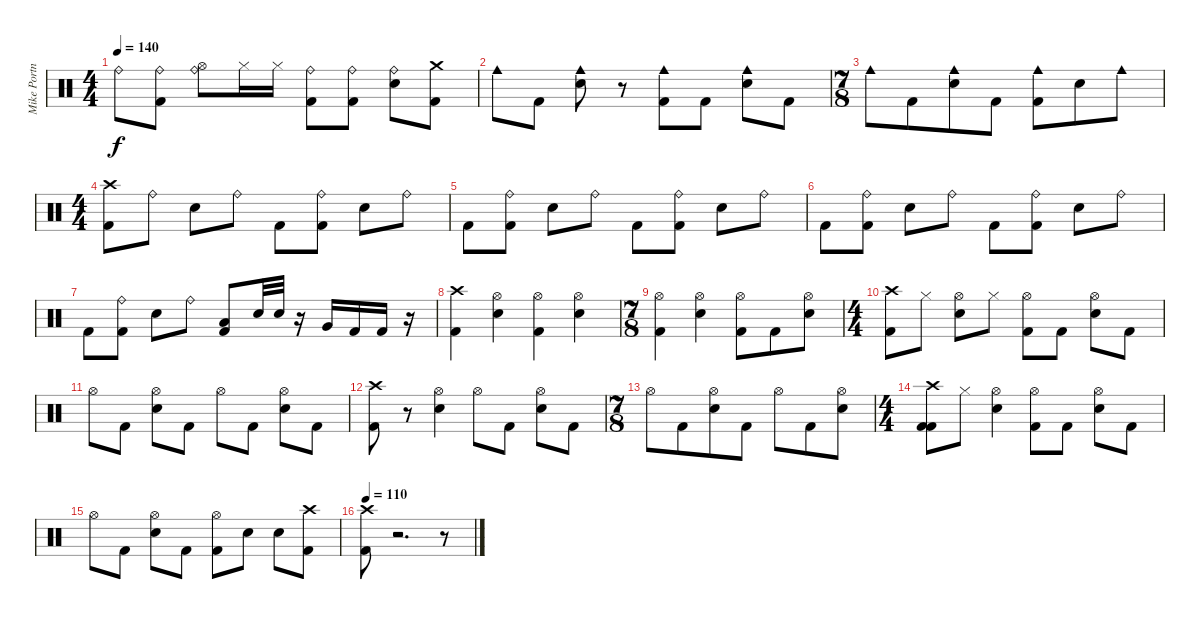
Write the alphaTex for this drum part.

\track ("Mike Portnoy - Drums" "Mike Portn") {instrument percussion}
\staff {score}
\articulation defaults
\ts (4 4)
\tempo 140
\clef neutral
\ks c "Ride (bell)".8{dy f}
("Kick (hit) 2" "Ride (bell)").8 ("Hi-Hat (open)" "Ride (bell)").8 "Hi-Hat (closed)".16 "Hi-Hat (closed)".16 ("Kick (hit) 2" "Ride (bell)").8 ("Kick (hit) 2" "Ride (bell)").8 ("Electric Snare (hit)" "Ride (bell)").8 ("Kick (hit) 2" "Crash medium (hit)").8 |
"Cowbell medium (hit)".8 "Kick (hit) 2".8 ("Electric Snare (hit)" "Cowbell medium (hit)").8 r.8 ("Kick (hit) 2" "Cowbell medium (hit)").8 "Kick (hit) 2".8 ("Electric Snare (hit)" "Cowbell medium (hit)").8 "Kick (hit) 2".8 |
\ts (7 8)
"Cowbell medium (hit)".8 "Kick (hit) 2".8 ("Electric Snare (hit)" "Cowbell medium (hit)").8 "Kick (hit) 2".8 ("Kick (hit) 2" "Cowbell medium (hit)").8 "Electric Snare (hit)".8 "Cowbell medium (hit)".8 |
\ts (4 4)
("Kick (hit) 2" "Crash high (hit)").8 "Ride (bell)".8 "Electric Snare (hit)".8 "Ride (bell)".8 "Kick (hit) 2".8 ("Ride (bell)" "Kick (hit) 2").8 "Electric Snare (hit)".8 "Ride (bell)".8 |
"Kick (hit) 2".8 ("Ride (bell)" "Kick (hit) 2").8 "Electric Snare (hit)".8 "Ride (bell)".8 "Kick (hit) 2".8 ("Ride (bell)" "Kick (hit) 2").8 "Electric Snare (hit)".8 "Ride (bell)".8 |
"Kick (hit) 2".8 ("Kick (hit) 2" "Ride (bell)").8 "Electric Snare (hit)".8 "Ride (bell)".8 "Kick (hit) 2".8 ("Ride (bell)" "Kick (hit) 2").8 "Electric Snare (hit)".8 "Ride (bell)".8 |
"Kick (hit) 2".8 ("Kick (hit) 2" "Ride (bell)").8 "Electric Snare (hit)".8 "Ride (bell)".8 ("Low Tom (hit)" "Kick (hit) 2").8 "Electric Snare (hit)".32 "Electric Snare (hit)".32 r.16 "Very Low Tom (hit)".16 "Kick (hit) 2".16 "Kick (hit) 2".16 r.16 |
("Crash high (hit)" "Kick (hit) 2").4 ("Electric Snare (hit)" "Hi-Hat (open)").4 ("Kick (hit) 2" "Hi-Hat (open)").4 ("Electric Snare (hit)" "Hi-Hat (open)").4 |
\ts (7 8)
("Kick (hit) 2" "Hi-Hat (open)").4 ("Electric Snare (hit)" "Hi-Hat (open)").4 ("Hi-Hat (open)" "Kick (hit) 2").8 "Kick (hit) 2".8 ("Electric Snare (hit)" "Hi-Hat (open)").8 |
\ts (4 4)
("Kick (hit) 2" "Crash high (hit)").8 "Hi-Hat (closed)".8 ("Electric Snare (hit)" "Hi-Hat (open)").8 "Hi-Hat (closed)".8 ("Kick (hit) 2" "Hi-Hat (open)").8 "Kick (hit) 2".8 ("Electric Snare (hit)" "Hi-Hat (open)").8 "Kick (hit) 2".8 |
"Hi-Hat (open)".8 "Kick (hit) 2".8 ("Hi-Hat (open)" "Electric Snare (hit)").8 "Kick (hit) 2".8 "Hi-Hat (open)".8 "Kick (hit) 2".8 ("Hi-Hat (open)" "Electric Snare (hit)").8 "Kick (hit) 2".8 |
("Crash high (hit)" "Kick (hit) 2").8 r.8 ("Electric Snare (hit)" "Hi-Hat (open)").4 "Hi-Hat (open)".8 "Kick (hit) 2".8 ("Electric Snare (hit)" "Hi-Hat (open)").8 "Kick (hit) 2".8 |
\ts (7 8)
"Hi-Hat (open)".8 "Kick (hit) 2".8 ("Hi-Hat (open)" "Electric Snare (hit)").8 "Kick (hit) 2".8 "Hi-Hat (open)".8 "Kick (hit) 2".8 ("Electric Snare (hit)" "Hi-Hat (open)").8 |
\ts (4 4)
("Kick (hit) 2" "Crash high (hit)" "Kick (hit) 2").8 "Hi-Hat (closed)".8 ("Snare (hit)" "Hi-Hat (open)").4 ("Kick (hit) 2" "Hi-Hat (open)").8 "Kick (hit) 2".8 ("Electric Snare (hit)" "Hi-Hat (open)").8 "Kick (hit) 2".8 |
"Hi-Hat (open)".8 "Kick (hit) 2".8 ("Hi-Hat (open)" "Electric Snare (hit)").8 "Kick (hit) 2".8 ("Hi-Hat (open)" "Kick (hit) 2").8 "Electric Snare (hit)".8 "Electric Snare (hit)".8 ("Kick (hit) 2" "Crash high (hit)").8 |
\tempo 110
("Crash high (hit)" "Kick (hit) 2").8 r.2{d} r.8
